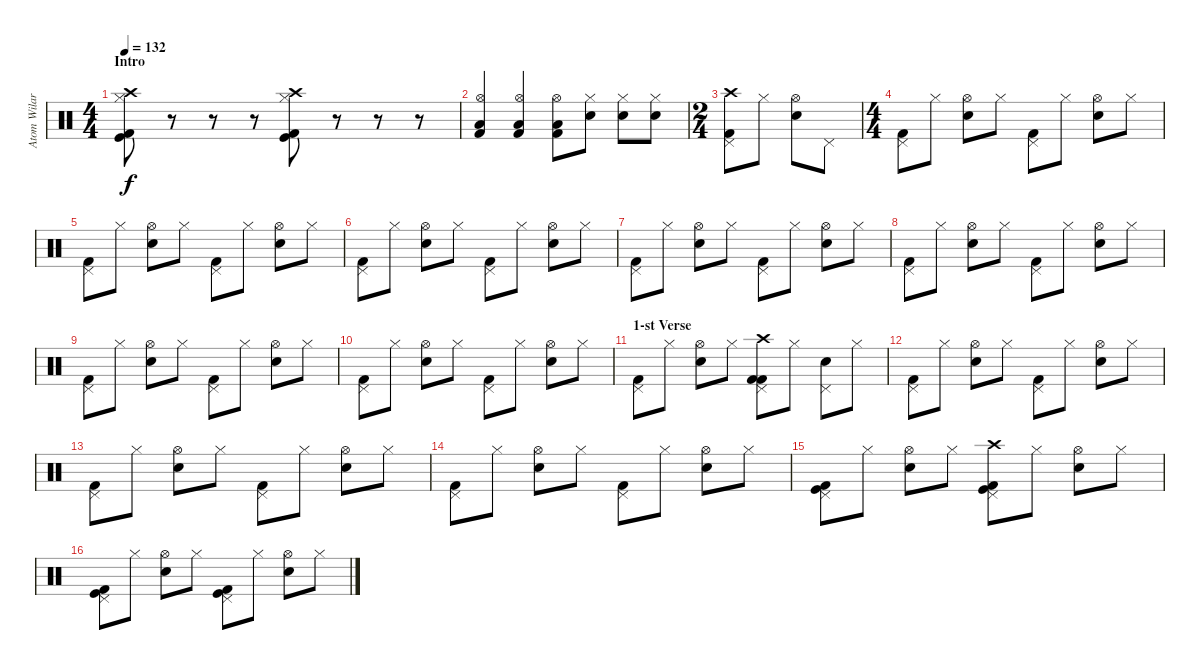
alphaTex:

\track ("Atom Wilard or Ron Welty ?" "Atom Wilar") {instrument percussion}
\staff {score}
\articulation defaults
\ts (4 4)
\section ("" "Intro")
\tempo 132
\clef neutral
\ks c
("Hi-Hat (closed)" "Crash high (hit)" "Kick (hit)" "Kick (hit) 2").8{dy f} r.8 r.8 r.8 ("Hi-Hat (closed)" "Crash high (hit)" "Kick (hit)" "Kick (hit) 2").8 r.8 r.8 r.8 |
("Hi-Hat (open)" "Kick (hit) 2" "Low Floor Tom (hit)").4 ("Hi-Hat (open)" "Kick (hit) 2" "Low Floor Tom (hit)").4 ("Hi-Hat (open)" "Kick (hit) 2" "Low Floor Tom (hit)").8 ("Hi-Hat (closed)" "Electric Snare (hit)").8 ("Hi-Hat (closed)" "Electric Snare (hit)").8 ("Hi-Hat (closed)" "Electric Snare (hit)").8 |
\ts (2 4)
("Pedal Hi-Hat (hit)" "Crash high (hit)" "Kick (hit) 2").8 "Hi-Hat (closed)".8 ("Hi-Hat (open)" "Electric Snare (hit)").8 "Pedal Hi-Hat (hit)".8 |
\ts (4 4)
("Pedal Hi-Hat (hit)" "Kick (hit) 2").8 "Hi-Hat (closed)".8 ("Hi-Hat (open)" "Electric Snare (hit)").8 "Hi-Hat (closed)".8 ("Pedal Hi-Hat (hit)" "Kick (hit) 2").8 "Hi-Hat (closed)".8 ("Hi-Hat (open)" "Electric Snare (hit)").8 "Hi-Hat (closed)".8 |
("Pedal Hi-Hat (hit)" "Kick (hit) 2").8 "Hi-Hat (closed)".8 ("Hi-Hat (open)" "Electric Snare (hit)").8 "Hi-Hat (closed)".8 ("Pedal Hi-Hat (hit)" "Kick (hit) 2").8 "Hi-Hat (closed)".8 ("Hi-Hat (open)" "Electric Snare (hit)").8 "Hi-Hat (closed)".8 |
("Pedal Hi-Hat (hit)" "Kick (hit) 2").8 "Hi-Hat (closed)".8 ("Hi-Hat (open)" "Electric Snare (hit)").8 "Hi-Hat (closed)".8 ("Pedal Hi-Hat (hit)" "Kick (hit) 2").8 "Hi-Hat (closed)".8 ("Hi-Hat (open)" "Electric Snare (hit)").8 "Hi-Hat (closed)".8 |
("Pedal Hi-Hat (hit)" "Kick (hit) 2").8 "Hi-Hat (closed)".8 ("Hi-Hat (open)" "Electric Snare (hit)").8 "Hi-Hat (closed)".8 ("Pedal Hi-Hat (hit)" "Kick (hit) 2").8 "Hi-Hat (closed)".8 ("Hi-Hat (open)" "Electric Snare (hit)").8 "Hi-Hat (closed)".8 |
("Pedal Hi-Hat (hit)" "Kick (hit) 2").8 "Hi-Hat (closed)".8 ("Hi-Hat (open)" "Electric Snare (hit)").8 "Hi-Hat (closed)".8 ("Pedal Hi-Hat (hit)" "Kick (hit) 2").8 "Hi-Hat (closed)".8 ("Hi-Hat (open)" "Electric Snare (hit)").8 "Hi-Hat (closed)".8 |
("Pedal Hi-Hat (hit)" "Kick (hit) 2").8 "Hi-Hat (closed)".8 ("Hi-Hat (open)" "Electric Snare (hit)").8 "Hi-Hat (closed)".8 ("Pedal Hi-Hat (hit)" "Kick (hit) 2").8 "Hi-Hat (closed)".8 ("Hi-Hat (open)" "Electric Snare (hit)").8 "Hi-Hat (closed)".8 |
("Pedal Hi-Hat (hit)" "Kick (hit) 2").8 "Hi-Hat (closed)".8 ("Hi-Hat (open)" "Electric Snare (hit)").8 "Hi-Hat (closed)".8 ("Pedal Hi-Hat (hit)" "Kick (hit) 2").8 "Hi-Hat (closed)".8 ("Hi-Hat (open)" "Electric Snare (hit)").8 "Hi-Hat (closed)".8 |
\section ("" "1-st Verse")
("Pedal Hi-Hat (hit)" "Kick (hit) 2").8 "Hi-Hat (closed)".8 ("Hi-Hat (open)" "Electric Snare (hit)").8 "Hi-Hat (closed)".8 ("Pedal Hi-Hat (hit)" "Crash high (hit)" "Kick (hit) 2" "Kick (hit) 2").8 "Hi-Hat (closed)".8 ("Pedal Hi-Hat (hit)" "Electric Snare (hit)").8 "Hi-Hat (closed)".8 |
("Pedal Hi-Hat (hit)" "Kick (hit) 2").8 "Hi-Hat (closed)".8 ("Hi-Hat (open)" "Electric Snare (hit)").8 "Hi-Hat (closed)".8 ("Pedal Hi-Hat (hit)" "Kick (hit) 2").8 "Hi-Hat (closed)".8 ("Hi-Hat (open)" "Electric Snare (hit)").8 "Hi-Hat (closed)".8 |
("Pedal Hi-Hat (hit)" "Kick (hit) 2").8 "Hi-Hat (closed)".8 ("Hi-Hat (open)" "Electric Snare (hit)").8 "Hi-Hat (closed)".8 ("Pedal Hi-Hat (hit)" "Kick (hit) 2").8 "Hi-Hat (closed)".8 ("Hi-Hat (open)" "Electric Snare (hit)").8 "Hi-Hat (closed)".8 |
("Pedal Hi-Hat (hit)" "Kick (hit) 2").8 "Hi-Hat (closed)".8 ("Hi-Hat (open)" "Electric Snare (hit)").8 "Hi-Hat (closed)".8 ("Pedal Hi-Hat (hit)" "Kick (hit) 2").8 "Hi-Hat (closed)".8 ("Hi-Hat (open)" "Electric Snare (hit)").8 "Hi-Hat (closed)".8 |
("Pedal Hi-Hat (hit)" "Kick (hit)" "Kick (hit) 2").8 "Hi-Hat (closed)".8 ("Hi-Hat (open)" "Electric Snare (hit)").8 "Hi-Hat (closed)".8 ("Pedal Hi-Hat (hit)" "Crash high (hit)" "Kick (hit)" "Kick (hit) 2").8 "Hi-Hat (closed)".8 ("Hi-Hat (open)" "Electric Snare (hit)").8 "Hi-Hat (closed)".8 |
("Pedal Hi-Hat (hit)" "Kick (hit)" "Kick (hit) 2").8 "Hi-Hat (closed)".8 ("Hi-Hat (open)" "Electric Snare (hit)").8 "Hi-Hat (closed)".8 ("Pedal Hi-Hat (hit)" "Kick (hit)" "Kick (hit) 2").8 "Hi-Hat (closed)".8 ("Hi-Hat (open)" "Electric Snare (hit)").8 "Hi-Hat (closed)".8
